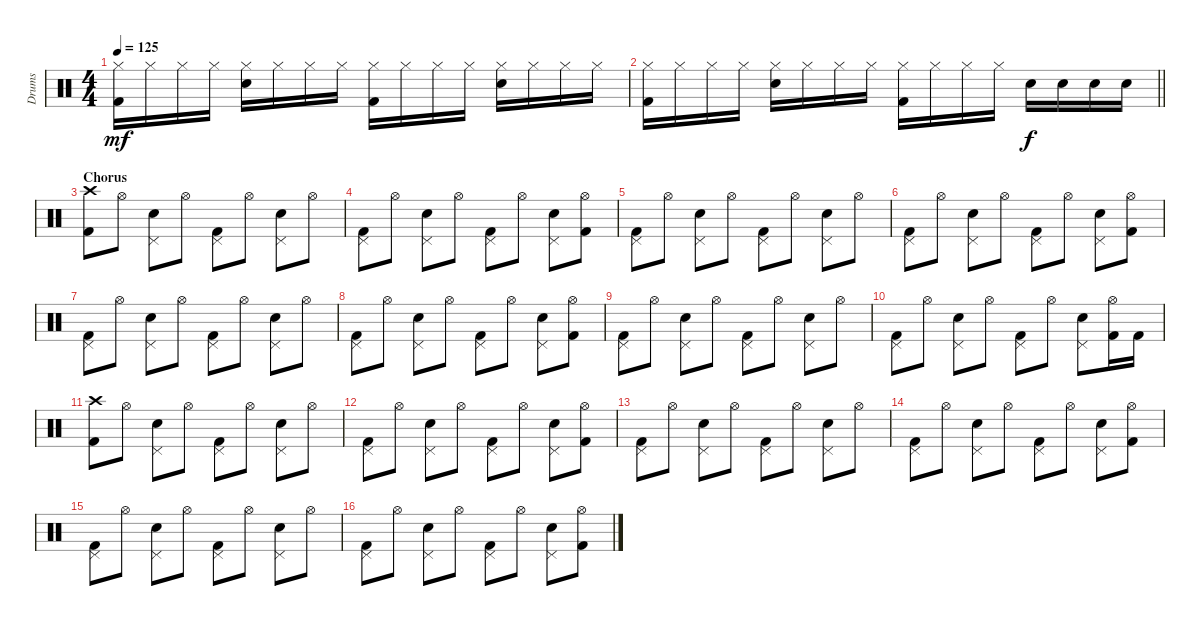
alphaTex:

\track ("Drums" "Drums") {instrument percussion}
\staff {score}
\articulation defaults
\ts (4 4)
\tempo 125
\clef neutral
\ks c
("Hi-Hat (closed)" "Kick (hit) 2").16{dy mf} "Hi-Hat (closed)".16 "Hi-Hat (closed)".16 "Hi-Hat (closed)".16 ("Hi-Hat (closed)" "Electric Snare (hit)").16 "Hi-Hat (closed)".16 "Hi-Hat (closed)".16 "Hi-Hat (closed)".16 ("Hi-Hat (closed)" "Kick (hit) 2").16 "Hi-Hat (closed)".16 "Hi-Hat (closed)".16 "Hi-Hat (closed)".16 ("Hi-Hat (closed)" "Electric Snare (hit)").16 "Hi-Hat (closed)".16 "Hi-Hat (closed)".16 "Hi-Hat (closed)".16 |
\barLineRight lightlight
("Hi-Hat (closed)" "Kick (hit) 2").16 "Hi-Hat (closed)".16 "Hi-Hat (closed)".16 "Hi-Hat (closed)".16 ("Hi-Hat (closed)" "Electric Snare (hit)").16 "Hi-Hat (closed)".16 "Hi-Hat (closed)".16 "Hi-Hat (closed)".16 ("Hi-Hat (closed)" "Kick (hit) 2").16 "Hi-Hat (closed)".16 "Hi-Hat (closed)".16 "Hi-Hat (closed)".16 "Electric Snare (hit)".16{dy f} "Electric Snare (hit)".16 "Electric Snare (hit)".16 "Electric Snare (hit)".16 |
\section ("" "Chorus")
("Crash high (hit)" "Kick (hit) 2").8 "Hi-Hat (open)".8 ("Pedal Hi-Hat (hit)" "Electric Snare (hit)").8 "Hi-Hat (open)".8 ("Pedal Hi-Hat (hit)" "Kick (hit) 2").8 "Hi-Hat (open)".8 ("Pedal Hi-Hat (hit)" "Electric Snare (hit)").8 "Hi-Hat (open)".8 |
("Pedal Hi-Hat (hit)" "Kick (hit) 2").8 "Hi-Hat (open)".8 ("Pedal Hi-Hat (hit)" "Electric Snare (hit)").8 "Hi-Hat (open)".8 ("Pedal Hi-Hat (hit)" "Kick (hit) 2").8 "Hi-Hat (open)".8 ("Pedal Hi-Hat (hit)" "Electric Snare (hit)").8 ("Hi-Hat (open)" "Kick (hit) 2").8 |
("Pedal Hi-Hat (hit)" "Kick (hit) 2").8 "Hi-Hat (open)".8 ("Pedal Hi-Hat (hit)" "Electric Snare (hit)").8 "Hi-Hat (open)".8 ("Pedal Hi-Hat (hit)" "Kick (hit) 2").8 "Hi-Hat (open)".8 ("Pedal Hi-Hat (hit)" "Electric Snare (hit)").8 "Hi-Hat (open)".8 |
("Pedal Hi-Hat (hit)" "Kick (hit) 2").8 "Hi-Hat (open)".8 ("Pedal Hi-Hat (hit)" "Electric Snare (hit)").8 "Hi-Hat (open)".8 ("Pedal Hi-Hat (hit)" "Kick (hit) 2").8 "Hi-Hat (open)".8 ("Pedal Hi-Hat (hit)" "Electric Snare (hit)").8 ("Hi-Hat (open)" "Kick (hit) 2").8 |
("Pedal Hi-Hat (hit)" "Kick (hit) 2").8 "Hi-Hat (open)".8 ("Pedal Hi-Hat (hit)" "Electric Snare (hit)").8 "Hi-Hat (open)".8 ("Pedal Hi-Hat (hit)" "Kick (hit) 2").8 "Hi-Hat (open)".8 ("Pedal Hi-Hat (hit)" "Electric Snare (hit)").8 "Hi-Hat (open)".8 |
("Pedal Hi-Hat (hit)" "Kick (hit) 2").8 "Hi-Hat (open)".8 ("Pedal Hi-Hat (hit)" "Electric Snare (hit)").8 "Hi-Hat (open)".8 ("Pedal Hi-Hat (hit)" "Kick (hit) 2").8 "Hi-Hat (open)".8 ("Pedal Hi-Hat (hit)" "Electric Snare (hit)").8 ("Hi-Hat (open)" "Kick (hit) 2").8 |
("Pedal Hi-Hat (hit)" "Kick (hit) 2").8 "Hi-Hat (open)".8 ("Pedal Hi-Hat (hit)" "Electric Snare (hit)").8 "Hi-Hat (open)".8 ("Pedal Hi-Hat (hit)" "Kick (hit) 2").8 "Hi-Hat (open)".8 ("Pedal Hi-Hat (hit)" "Electric Snare (hit)").8 "Hi-Hat (open)".8 |
("Pedal Hi-Hat (hit)" "Kick (hit) 2").8 "Hi-Hat (open)".8 ("Pedal Hi-Hat (hit)" "Electric Snare (hit)").8 "Hi-Hat (open)".8 ("Pedal Hi-Hat (hit)" "Kick (hit) 2").8 "Hi-Hat (open)".8 ("Pedal Hi-Hat (hit)" "Electric Snare (hit)").8 ("Hi-Hat (open)" "Kick (hit) 2").16 "Kick (hit) 2".16 |
("Crash high (hit)" "Kick (hit) 2").8 "Hi-Hat (open)".8 ("Pedal Hi-Hat (hit)" "Electric Snare (hit)").8 "Hi-Hat (open)".8 ("Pedal Hi-Hat (hit)" "Kick (hit) 2").8 "Hi-Hat (open)".8 ("Pedal Hi-Hat (hit)" "Electric Snare (hit)").8 "Hi-Hat (open)".8 |
("Pedal Hi-Hat (hit)" "Kick (hit) 2").8 "Hi-Hat (open)".8 ("Pedal Hi-Hat (hit)" "Electric Snare (hit)").8 "Hi-Hat (open)".8 ("Pedal Hi-Hat (hit)" "Kick (hit) 2").8 "Hi-Hat (open)".8 ("Pedal Hi-Hat (hit)" "Electric Snare (hit)").8 ("Hi-Hat (open)" "Kick (hit) 2").8 |
("Pedal Hi-Hat (hit)" "Kick (hit) 2").8 "Hi-Hat (open)".8 ("Pedal Hi-Hat (hit)" "Electric Snare (hit)").8 "Hi-Hat (open)".8 ("Pedal Hi-Hat (hit)" "Kick (hit) 2").8 "Hi-Hat (open)".8 ("Pedal Hi-Hat (hit)" "Electric Snare (hit)").8 "Hi-Hat (open)".8 |
("Pedal Hi-Hat (hit)" "Kick (hit) 2").8 "Hi-Hat (open)".8 ("Pedal Hi-Hat (hit)" "Electric Snare (hit)").8 "Hi-Hat (open)".8 ("Pedal Hi-Hat (hit)" "Kick (hit) 2").8 "Hi-Hat (open)".8 ("Pedal Hi-Hat (hit)" "Electric Snare (hit)").8 ("Hi-Hat (open)" "Kick (hit) 2").8 |
("Pedal Hi-Hat (hit)" "Kick (hit) 2").8 "Hi-Hat (open)".8 ("Pedal Hi-Hat (hit)" "Electric Snare (hit)").8 "Hi-Hat (open)".8 ("Pedal Hi-Hat (hit)" "Kick (hit) 2").8 "Hi-Hat (open)".8 ("Pedal Hi-Hat (hit)" "Electric Snare (hit)").8 "Hi-Hat (open)".8 |
("Pedal Hi-Hat (hit)" "Kick (hit) 2").8 "Hi-Hat (open)".8 ("Pedal Hi-Hat (hit)" "Electric Snare (hit)").8 "Hi-Hat (open)".8 ("Pedal Hi-Hat (hit)" "Kick (hit) 2").8 "Hi-Hat (open)".8 ("Pedal Hi-Hat (hit)" "Electric Snare (hit)").8 ("Hi-Hat (open)" "Kick (hit) 2").8
